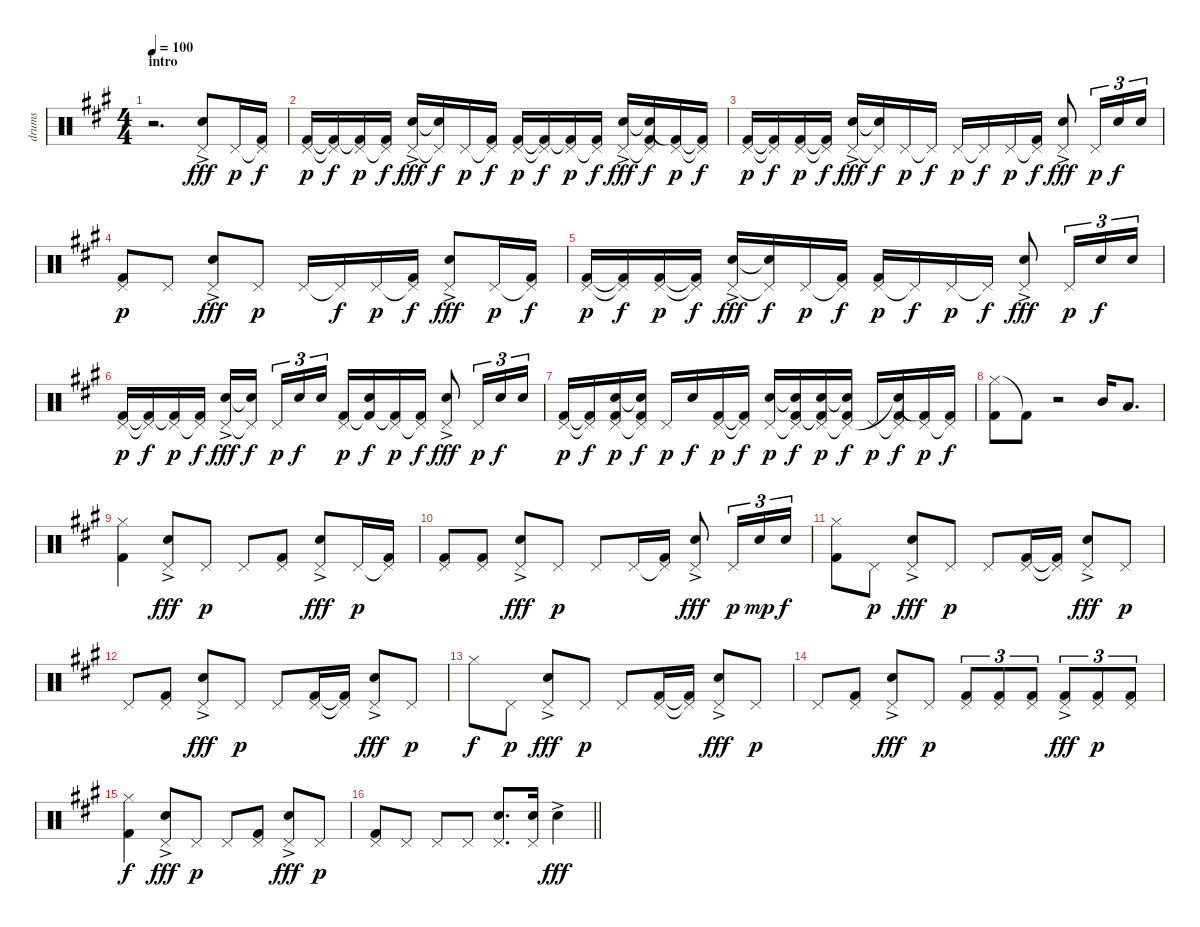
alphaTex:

\track ("drums" "drums") {instrument percussion}
\staff {score}
\articulation defaults
\ts (4 4)
\section ("" "intro")
\tempo 100
\clef neutral
\ks a
r.2{d dy fff} ("Pedal Hi-Hat (hit)" "Snare (hit) 2"{ac}).8{volume 3} "Pedal Hi-Hat (hit)".16{dy p} ("Pedal Hi-Hat (hit)"{t} "Kick (hit) 2").16{dy f} |
("Pedal Hi-Hat (hit)" "Kick (hit) 2").16{dy p volume 5} ("Pedal Hi-Hat (hit)"{t} "Kick (hit) 2"{t}).16{dy f} ("Pedal Hi-Hat (hit)" "Kick (hit) 2"{t}).16{dy p} ("Pedal Hi-Hat (hit)"{t} "Kick (hit) 2").16{dy f} ("Pedal Hi-Hat (hit)" "Snare (hit) 2"{ac}).16{dy fff} ("Pedal Hi-Hat (hit)"{t} "Snare (hit) 2"{t}).16{dy f} "Pedal Hi-Hat (hit)".16{dy p} ("Pedal Hi-Hat (hit)"{t} "Kick (hit) 2").16{dy f} ("Pedal Hi-Hat (hit)" "Kick (hit) 2").16{dy p volume 8} ("Pedal Hi-Hat (hit)"{t} "Kick (hit) 2"{t}).16{dy f} ("Pedal Hi-Hat (hit)" "Kick (hit) 2"{t}).16{dy p} ("Pedal Hi-Hat (hit)"{t} "Kick (hit) 2").16{dy f} ("Pedal Hi-Hat (hit)" "Snare (hit) 2"{ac}).16{dy fff} ("Pedal Hi-Hat (hit)"{t} "Snare (hit) 2"{t} "Kick (hit) 2").16{dy f} ("Pedal Hi-Hat (hit)" "Kick (hit) 2"{t}).16{dy p} ("Pedal Hi-Hat (hit)"{t} "Kick (hit) 2"{t}).16{dy f} |
("Pedal Hi-Hat (hit)" "Kick (hit) 2").16{dy p volume 10} ("Pedal Hi-Hat (hit)"{t} "Kick (hit) 2"{t}).16{dy f} ("Pedal Hi-Hat (hit)" "Kick (hit) 2").16{dy p} ("Pedal Hi-Hat (hit)"{t} "Kick (hit) 2"{t}).16{dy f} ("Pedal Hi-Hat (hit)" "Snare (hit) 2"{ac}).16{dy fff} ("Pedal Hi-Hat (hit)"{t} "Snare (hit) 2"{t}).16{dy f} "Pedal Hi-Hat (hit)".16{dy p volume 14} "Pedal Hi-Hat (hit)"{t}.16{dy f} "Pedal Hi-Hat (hit)".16{dy p} "Pedal Hi-Hat (hit)"{t}.16{dy f} "Pedal Hi-Hat (hit)".16{dy p} ("Pedal Hi-Hat (hit)"{t} "Kick (hit) 2").16{dy f} ("Pedal Hi-Hat (hit)" "Snare (hit) 2"{ac}).8{dy fff} "Pedal Hi-Hat (hit)".16{tu (3 2) dy p} "Snare (hit) 2".16{tu (3 2) dy f} "Snare (hit) 2".16{tu (3 2)} |
("Pedal Hi-Hat (hit)" "Kick (hit) 2").8{dy p} "Pedal Hi-Hat (hit)".8 ("Pedal Hi-Hat (hit)" "Snare (hit) 2"{ac}).8{dy fff} "Pedal Hi-Hat (hit)".8{dy p} "Pedal Hi-Hat (hit)".16 "Pedal Hi-Hat (hit)"{t}.16{dy f} "Pedal Hi-Hat (hit)".16{dy p} ("Pedal Hi-Hat (hit)"{t} "Kick (hit) 2").16{dy f} ("Pedal Hi-Hat (hit)" "Snare (hit) 2"{ac}).8{dy fff} "Pedal Hi-Hat (hit)".16{dy p} ("Pedal Hi-Hat (hit)"{t} "Kick (hit) 2").16{dy f} |
("Pedal Hi-Hat (hit)" "Kick (hit) 2").16{dy p} ("Pedal Hi-Hat (hit)"{t} "Kick (hit) 2"{t}).16{dy f} ("Pedal Hi-Hat (hit)" "Kick (hit) 2").16{dy p} ("Pedal Hi-Hat (hit)"{t} "Kick (hit) 2"{t}).16{dy f} ("Pedal Hi-Hat (hit)" "Snare (hit) 2"{ac}).16{dy fff} ("Pedal Hi-Hat (hit)"{t} "Snare (hit) 2"{t}).16{dy f} "Pedal Hi-Hat (hit)".16{dy p} ("Pedal Hi-Hat (hit)"{t} "Kick (hit) 2").16{dy f} ("Pedal Hi-Hat (hit)" "Kick (hit) 2").16{dy p} "Pedal Hi-Hat (hit)"{t}.16{dy f} "Pedal Hi-Hat (hit)".16{dy p} "Pedal Hi-Hat (hit)"{t}.16{dy f} ("Pedal Hi-Hat (hit)" "Snare (hit) 2"{ac}).8{dy fff} "Pedal Hi-Hat (hit)".16{tu (3 2) dy p} "Snare (hit) 2".16{tu (3 2) dy f} "Snare (hit) 2".16{tu (3 2)} |
("Pedal Hi-Hat (hit)" "Kick (hit) 2").16{dy p} ("Pedal Hi-Hat (hit)"{t} "Kick (hit) 2"{t}).16{dy f} ("Pedal Hi-Hat (hit)" "Kick (hit) 2"{t}).16{dy p} ("Pedal Hi-Hat (hit)"{t} "Kick (hit) 2").16{dy f} ("Pedal Hi-Hat (hit)" "Snare (hit) 2"{ac}).16{dy fff} ("Pedal Hi-Hat (hit)"{t} "Snare (hit) 2"{t}).16{dy f} "Pedal Hi-Hat (hit)".16{tu (3 2) dy p} "Snare (hit) 2".16{tu (3 2) dy f} "Snare (hit) 2".16{tu (3 2)} ("Pedal Hi-Hat (hit)" "Kick (hit) 2").16{dy p} ("Snare (hit) 2" "Kick (hit) 2"{t}).16{dy f} ("Pedal Hi-Hat (hit)" "Kick (hit) 2"{t}).16{dy p} ("Pedal Hi-Hat (hit)"{t} "Kick (hit) 2").16{dy f} ("Pedal Hi-Hat (hit)" "Snare (hit) 2"{ac}).8{dy fff} "Pedal Hi-Hat (hit)".16{tu (3 2) dy p} "Snare (hit) 2".16{tu (3 2) dy f} "Snare (hit) 2".16{tu (3 2)} |
("Pedal Hi-Hat (hit)" "Kick (hit) 2").16{dy p} ("Pedal Hi-Hat (hit)"{t} "Kick (hit) 2"{t}).16{dy f} ("Snare (hit) 2" "Pedal Hi-Hat (hit)" "Kick (hit) 2").16{dy p} ("Snare (hit) 2"{t} "Pedal Hi-Hat (hit)"{t} "Kick (hit) 2").16{dy f} "Pedal Hi-Hat (hit)".16{dy p} "Snare (hit) 2".16{dy f} ("Pedal Hi-Hat (hit)" "Kick (hit) 2").16{dy p} ("Pedal Hi-Hat (hit)"{t} "Kick (hit) 2"{t}).16{dy f} ("Snare (hit) 2" "Pedal Hi-Hat (hit)").16{dy p} ("Snare (hit) 2"{t} "Pedal Hi-Hat (hit)"{t} "Kick (hit) 2").16{dy f} ("Snare (hit) 2" "Pedal Hi-Hat (hit)" "Kick (hit) 2"{t}).16{dy p} ("Snare (hit) 2"{t} "Pedal Hi-Hat (hit)"{t} "Kick (hit) 2").16{dy f} "Pedal Hi-Hat (hit)".16{dy p} ("Pedal Hi-Hat (hit)"{t} "Snare (hit) 2"{t} "Kick (hit) 2").16{dy f} ("Pedal Hi-Hat (hit)" "Kick (hit) 2"{t}).16{dy p} ("Pedal Hi-Hat (hit)"{t} "Kick (hit) 2").16{dy f} |
("Hi-Hat (closed)" "Kick (hit) 2").8 "Kick (hit) 2"{t}.8 r.2 "Mid Tom (hit)".16 "Low Tom (hit)".8{d} |
("Hi-Hat (closed)" "Kick (hit) 2").4 ("Pedal Hi-Hat (hit)" "Snare (hit) 2"{ac}).8{dy fff} "Pedal Hi-Hat (hit)".8{dy p} "Pedal Hi-Hat (hit)".8 ("Pedal Hi-Hat (hit)" "Kick (hit) 2").8 ("Pedal Hi-Hat (hit)" "Snare (hit) 2"{ac}).8{dy fff} "Pedal Hi-Hat (hit)".16{dy p} ("Pedal Hi-Hat (hit)"{t} "Kick (hit) 2").16 |
("Pedal Hi-Hat (hit)" "Kick (hit) 2").8 ("Pedal Hi-Hat (hit)" "Kick (hit) 2").8 ("Pedal Hi-Hat (hit)" "Snare (hit) 2"{ac}).8{dy fff} "Pedal Hi-Hat (hit)".8{dy p} "Pedal Hi-Hat (hit)".8 "Pedal Hi-Hat (hit)".16 ("Pedal Hi-Hat (hit)"{t} "Kick (hit) 2").16 ("Pedal Hi-Hat (hit)" "Snare (hit) 2"{ac}).8{dy fff} "Pedal Hi-Hat (hit)".16{tu (3 2) dy p} "Snare (hit) 2".16{tu (3 2) dy mp} "Snare (hit) 2".16{tu (3 2) dy f} |
("Hi-Hat (closed)" "Kick (hit) 2").8 "Pedal Hi-Hat (hit)".8{dy p} ("Pedal Hi-Hat (hit)" "Snare (hit) 2"{ac}).8{dy fff} "Pedal Hi-Hat (hit)".8{dy p} "Pedal Hi-Hat (hit)".8 ("Pedal Hi-Hat (hit)" "Kick (hit) 2").16 ("Pedal Hi-Hat (hit)"{t} "Kick (hit) 2"{t}).16 ("Pedal Hi-Hat (hit)" "Snare (hit) 2"{ac}).8{dy fff} "Pedal Hi-Hat (hit)".8{dy p} |
"Pedal Hi-Hat (hit)".8 ("Pedal Hi-Hat (hit)" "Kick (hit) 2").8 ("Pedal Hi-Hat (hit)" "Snare (hit) 2"{ac}).8{dy fff} "Pedal Hi-Hat (hit)".8{dy p} "Pedal Hi-Hat (hit)".8 ("Pedal Hi-Hat (hit)" "Kick (hit) 2").16 ("Pedal Hi-Hat (hit)"{t} "Kick (hit) 2"{t}).16 ("Pedal Hi-Hat (hit)" "Snare (hit) 2"{ac}).8{dy fff} "Pedal Hi-Hat (hit)".8{dy p} |
"Hi-Hat (closed)".8{dy f} "Pedal Hi-Hat (hit)".8{dy p} ("Pedal Hi-Hat (hit)" "Snare (hit) 2"{ac}).8{dy fff} "Pedal Hi-Hat (hit)".8{dy p} "Pedal Hi-Hat (hit)".8 ("Pedal Hi-Hat (hit)" "Kick (hit) 2").16 ("Pedal Hi-Hat (hit)"{t} "Kick (hit) 2"{t}).16 ("Pedal Hi-Hat (hit)" "Snare (hit) 2"{ac}).8{dy fff} "Pedal Hi-Hat (hit)".8{dy p} |
"Pedal Hi-Hat (hit)".8 ("Pedal Hi-Hat (hit)" "Kick (hit) 2").8 ("Pedal Hi-Hat (hit)" "Snare (hit) 2"{ac}).8{dy fff} "Pedal Hi-Hat (hit)".8{dy p} ("Pedal Hi-Hat (hit)" "Kick (hit) 2").8{tu (3 2)} ("Pedal Hi-Hat (hit)" "Kick (hit) 2").8{tu (3 2)} ("Pedal Hi-Hat (hit)" "Kick (hit) 2").8{tu (3 2)} ("Pedal Hi-Hat (hit)" "Kick (hit) 2"{ac}).8{tu (3 2) dy fff} ("Pedal Hi-Hat (hit)" "Kick (hit) 2").8{tu (3 2) dy p} ("Pedal Hi-Hat (hit)" "Kick (hit) 2").8{tu (3 2)} |
("Hi-Hat (closed)" "Kick (hit) 2").4{dy f} ("Pedal Hi-Hat (hit)" "Snare (hit) 2"{ac}).8{dy fff} "Pedal Hi-Hat (hit)".8{dy p} "Pedal Hi-Hat (hit)".8 ("Pedal Hi-Hat (hit)" "Kick (hit) 2").8 ("Pedal Hi-Hat (hit)" "Snare (hit) 2"{ac}).8{dy fff} "Pedal Hi-Hat (hit)".8{dy p} |
\barLineRight lightlight
("Pedal Hi-Hat (hit)" "Kick (hit) 2").8 "Pedal Hi-Hat (hit)".8 "Pedal Hi-Hat (hit)".8 "Pedal Hi-Hat (hit)".8 ("Pedal Hi-Hat (hit)" "Snare (hit) 2").8{d} ("Pedal Hi-Hat (hit)" "Snare (hit) 2").16 "Snare (hit) 2"{ac}.4{dy fff}
